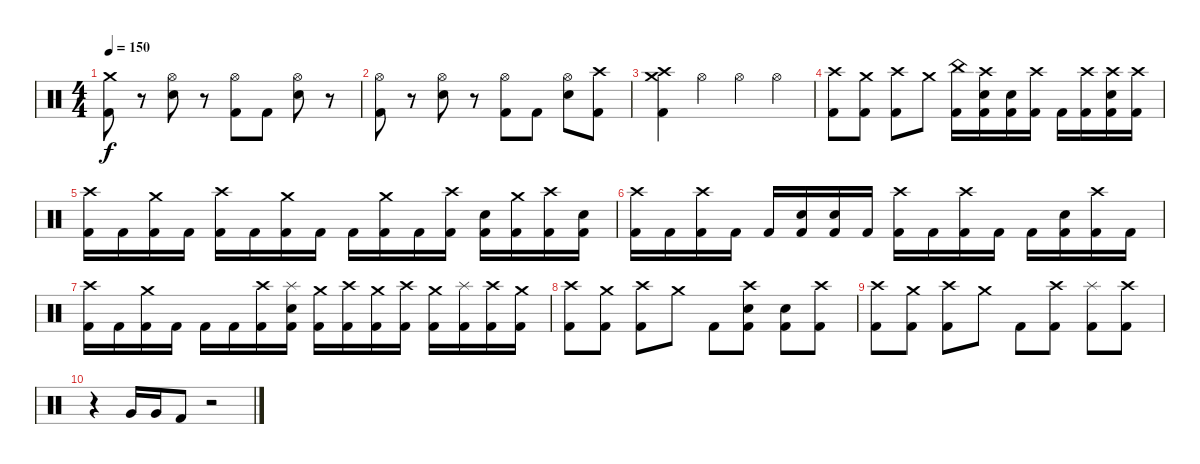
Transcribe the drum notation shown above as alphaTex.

\track "" {instrument percussion}
\staff {score}
\articulation defaults
\ts (4 4)
\tempo 150
\clef neutral
\ks c
("Crash medium (hit)" "Kick (hit) 2").8{dy f} r.8 ("Hi-Hat (open)" "Electric Snare (hit)").8 r.8 ("Hi-Hat (open)" "Kick (hit) 2").8 "Kick (hit) 2".8 ("Hi-Hat (open)" "Electric Snare (hit)").8 r.8 |
("Hi-Hat (open)" "Kick (hit) 2").8 r.8 ("Hi-Hat (open)" "Electric Snare (hit)").8 r.8 ("Hi-Hat (open)" "Kick (hit) 2").8 "Kick (hit) 2".8 ("Hi-Hat (open)" "Electric Snare (hit)").8 ("Crash high (hit)" "Kick (hit) 2").8 |
("Crash high (hit)" "Crash medium (hit)" "Kick (hit) 2").4 "Hi-Hat (open)".4 "Hi-Hat (open)".4 "Hi-Hat (open)".4 |
("Crash high (hit)" "Kick (hit) 2").8 ("Crash medium (hit)" "Kick (hit) 2").8 ("Crash high (hit)" "Kick (hit) 2").8 "Crash medium (hit)".8 ("China (hit)" "Kick (hit) 2").16 ("Crash high (hit)" "Electric Snare (hit)" "Kick (hit) 2").16 ("Electric Snare (hit)" "Kick (hit) 2").16 ("Crash high (hit)" "Kick (hit) 2").16 "Kick (hit) 2".16 ("Crash high (hit)" "Kick (hit) 2").16 ("Crash high (hit)" "Electric Snare (hit)" "Kick (hit) 2").16 ("Crash high (hit)" "Kick (hit) 2").16 |
("Crash high (hit)" "Kick (hit) 2").16 "Kick (hit) 2".16 ("Crash medium (hit)" "Kick (hit) 2").16 "Kick (hit) 2".16 ("Crash high (hit)" "Kick (hit) 2").16 "Kick (hit) 2".16 ("Crash medium (hit)" "Kick (hit) 2").16 "Kick (hit) 2".16 "Kick (hit) 2".16 ("Crash medium (hit)" "Kick (hit) 2").16 "Kick (hit) 2".16 ("Crash high (hit)" "Kick (hit) 2").16 ("Electric Snare (hit)" "Kick (hit) 2").16 ("Crash medium (hit)" "Kick (hit) 2").16 ("Crash high (hit)" "Kick (hit) 2").16 ("Electric Snare (hit)" "Kick (hit) 2").16 |
("Crash high (hit)" "Kick (hit) 2").16 "Kick (hit) 2".16 ("Crash high (hit)" "Kick (hit) 2").16 "Kick (hit) 2".16 "Kick (hit) 2".16 ("Electric Snare (hit)" "Kick (hit) 2").16 ("Electric Snare (hit)" "Kick (hit) 2").16 "Kick (hit) 2".16 ("Crash high (hit)" "Kick (hit) 2").16 "Kick (hit) 2".16 ("Crash high (hit)" "Kick (hit) 2").16 "Kick (hit) 2".16 "Kick (hit) 2".16 ("Electric Snare (hit)" "Kick (hit) 2").16 ("Crash high (hit)" "Kick (hit) 2").16 "Kick (hit) 2".16 |
("Crash high (hit)" "Kick (hit) 2").16 "Kick (hit) 2".16 ("Crash medium (hit)" "Kick (hit) 2").16 "Kick (hit) 2".16 "Kick (hit) 2".16 "Kick (hit) 2".16 ("Crash high (hit)" "Kick (hit) 2").16 ("Splash (hit)" "Electric Snare (hit)" "Kick (hit) 2").16 ("Crash medium (hit)" "Kick (hit) 2").16 ("Crash high (hit)" "Kick (hit) 2").16 ("Crash medium (hit)" "Kick (hit) 2").16 ("Crash high (hit)" "Kick (hit) 2").16 ("Crash medium (hit)" "Kick (hit) 2").16 ("Splash (hit)" "Kick (hit) 2").16 ("Crash high (hit)" "Kick (hit) 2").16 ("Crash medium (hit)" "Kick (hit) 2").16 |
("Crash high (hit)" "Kick (hit) 2").8 ("Crash medium (hit)" "Kick (hit) 2").8 ("Crash high (hit)" "Kick (hit) 2").8 "Crash medium (hit)".8 "Kick (hit) 2".8 ("Crash high (hit)" "Electric Snare (hit)" "Kick (hit) 2").8 ("Electric Snare (hit)" "Kick (hit) 2").8 ("Crash high (hit)" "Kick (hit) 2").8 |
("Crash high (hit)" "Kick (hit) 2").8 ("Crash medium (hit)" "Kick (hit) 2").8 ("Crash high (hit)" "Kick (hit) 2").8 "Crash medium (hit)".8 "Kick (hit) 2".8 ("Crash high (hit)" "Kick (hit) 2").8 ("Splash (hit)" "Kick (hit) 2").8 ("Crash high (hit)" "Kick (hit) 2").8 |
r.4 "Very Low Tom (hit)".16 "Very Low Tom (hit)".16 "Kick (hit) 2".8 r.2
